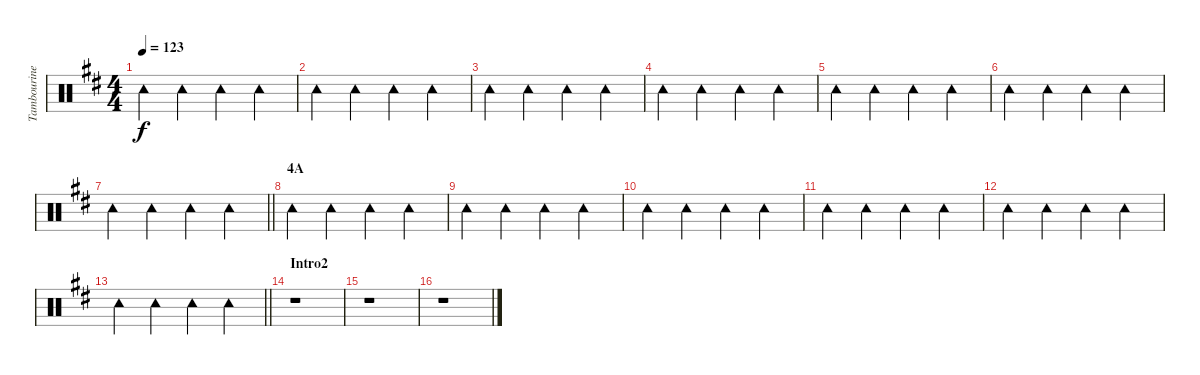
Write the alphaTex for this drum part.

\track ("Tambourine" "Tambourine") {instrument percussion}
\staff {score}
\articulation defaults
\ts (4 4)
\tempo 123
\clef neutral
\ks d "Tambourine (hit)".4{dy f} "Tambourine (hit)".4 "Tambourine (hit)".4 "Tambourine (hit)".4
|
"Tambourine (hit)".4 "Tambourine (hit)".4 "Tambourine (hit)".4 "Tambourine (hit)".4 |
"Tambourine (hit)".4 "Tambourine (hit)".4 "Tambourine (hit)".4 "Tambourine (hit)".4 |
"Tambourine (hit)".4 "Tambourine (hit)".4 "Tambourine (hit)".4 "Tambourine (hit)".4 |
"Tambourine (hit)".4 "Tambourine (hit)".4 "Tambourine (hit)".4 "Tambourine (hit)".4 |
"Tambourine (hit)".4 "Tambourine (hit)".4 "Tambourine (hit)".4 "Tambourine (hit)".4 |
\barLineRight lightlight "Tambourine (hit)".4 "Tambourine (hit)".4 "Tambourine (hit)".4 "Tambourine (hit)".4
|
\section ("" "4A")
"Tambourine (hit)".4 "Tambourine (hit)".4 "Tambourine (hit)".4 "Tambourine (hit)".4 |
"Tambourine (hit)".4 "Tambourine (hit)".4 "Tambourine (hit)".4 "Tambourine (hit)".4 |
"Tambourine (hit)".4 "Tambourine (hit)".4 "Tambourine (hit)".4 "Tambourine (hit)".4 |
"Tambourine (hit)".4 "Tambourine (hit)".4 "Tambourine (hit)".4 "Tambourine (hit)".4 |
"Tambourine (hit)".4 "Tambourine (hit)".4 "Tambourine (hit)".4 "Tambourine (hit)".4 |
\barLineRight lightlight "Tambourine (hit)".4 "Tambourine (hit)".4 "Tambourine (hit)".4 "Tambourine (hit)".4
|
\section ("" "Intro2")
r.1 |
r.1 |
r.1
